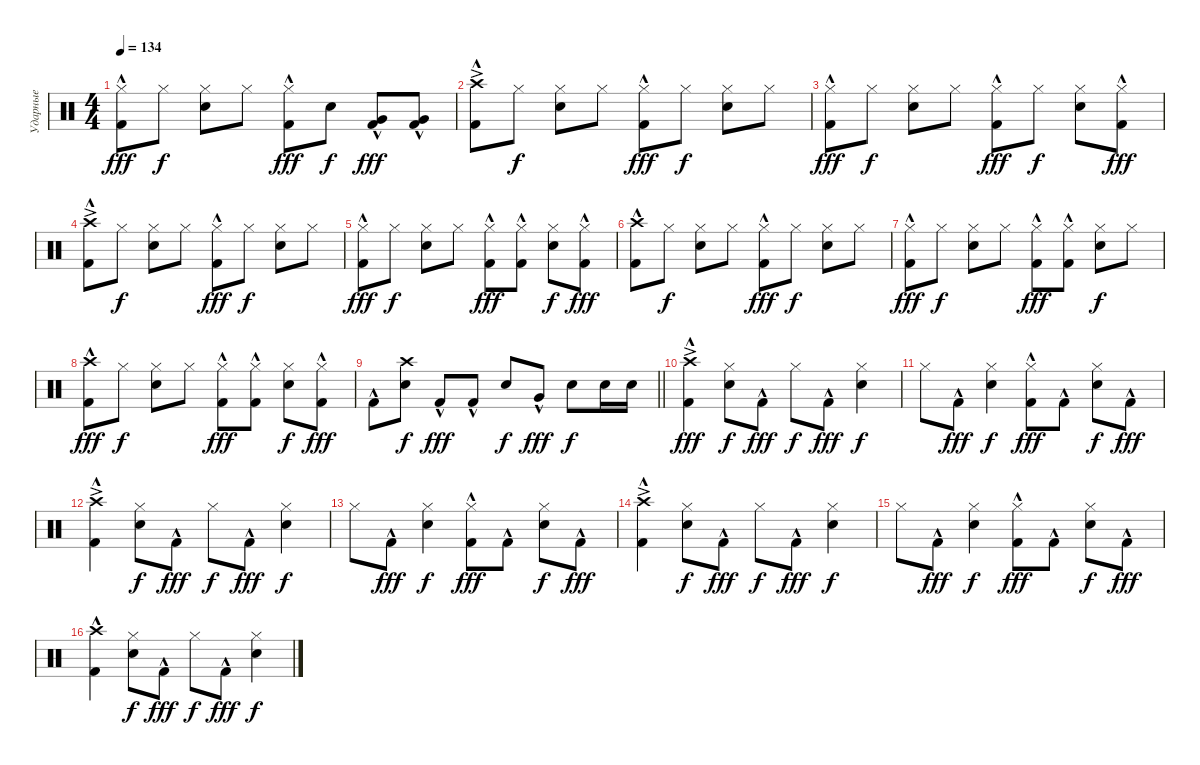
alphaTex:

\track ("Ударные" "Ударные") {instrument percussion}
\staff {score}
\articulation defaults
\ts (4 4)
\tempo 134
\clef neutral
\ks c
("Hi-Hat (closed)" "Kick (hit) 2"{hac}).8{dy fff} "Hi-Hat (closed)".8{dy f} ("Hi-Hat (closed)" "Snare (hit) 2").8 "Hi-Hat (closed)".8 ("Hi-Hat (closed)" "Kick (hit) 2"{hac}).8{dy fff} "Snare (hit) 2".8{dy f} ("Very Low Tom (hit)" "Kick (hit) 2"{hac}).8{dy fff} ("Very Low Tom (hit)" "Kick (hit) 2"{hac}).8 |
("Crash high (hit)"{ac} "Kick (hit) 2"{hac}).8 "Hi-Hat (closed)".8{dy f} ("Hi-Hat (closed)" "Snare (hit) 2").8 "Hi-Hat (closed)".8 ("Hi-Hat (closed)" "Kick (hit) 2"{hac}).8{dy fff} "Hi-Hat (closed)".8{dy f} ("Hi-Hat (closed)" "Snare (hit) 2").8 "Hi-Hat (closed)".8 |
("Hi-Hat (closed)" "Kick (hit) 2"{hac}).8{dy fff} "Hi-Hat (closed)".8{dy f} ("Hi-Hat (closed)" "Snare (hit) 2").8 "Hi-Hat (closed)".8 ("Hi-Hat (closed)" "Kick (hit) 2"{hac}).8{dy fff} "Hi-Hat (closed)".8{dy f} ("Hi-Hat (closed)" "Snare (hit) 2").8 ("Hi-Hat (closed)" "Kick (hit) 2"{hac}).8{dy fff} |
("Crash high (hit)"{ac} "Kick (hit) 2"{hac}).8 "Hi-Hat (closed)".8{dy f} ("Hi-Hat (closed)" "Snare (hit) 2").8 "Hi-Hat (closed)".8 ("Hi-Hat (closed)" "Kick (hit) 2"{hac}).8{dy fff} "Hi-Hat (closed)".8{dy f} ("Hi-Hat (closed)" "Snare (hit) 2").8 "Hi-Hat (closed)".8 |
("Hi-Hat (closed)" "Kick (hit) 2"{hac}).8{dy fff} "Hi-Hat (closed)".8{dy f} ("Hi-Hat (closed)" "Snare (hit) 2").8 "Hi-Hat (closed)".8 ("Hi-Hat (closed)" "Kick (hit) 2"{hac}).8{dy fff} ("Hi-Hat (closed)" "Kick (hit) 2"{hac}).8 ("Hi-Hat (closed)" "Snare (hit) 2").8{dy f} ("Hi-Hat (closed)" "Kick (hit) 2"{hac}).8{dy fff} |
("Crash high (hit)" "Kick (hit) 2"{hac}).8 "Hi-Hat (closed)".8{dy f} ("Hi-Hat (closed)" "Snare (hit) 2").8 "Hi-Hat (closed)".8 ("Hi-Hat (closed)" "Kick (hit) 2"{hac}).8{dy fff} "Hi-Hat (closed)".8{dy f} ("Hi-Hat (closed)" "Snare (hit) 2").8 "Hi-Hat (closed)".8 |
("Hi-Hat (closed)" "Kick (hit) 2"{hac}).8{dy fff} "Hi-Hat (closed)".8{dy f} ("Hi-Hat (closed)" "Snare (hit) 2").8 "Hi-Hat (closed)".8 ("Hi-Hat (closed)" "Kick (hit) 2"{hac}).8{dy fff} ("Hi-Hat (closed)" "Kick (hit) 2"{hac}).8 ("Hi-Hat (closed)" "Snare (hit) 2").8{dy f} "Hi-Hat (closed)".8 |
("Crash high (hit)" "Kick (hit) 2"{hac}).8{dy fff} "Hi-Hat (closed)".8{dy f} ("Hi-Hat (closed)" "Snare (hit) 2").8 "Hi-Hat (closed)".8 ("Hi-Hat (closed)" "Kick (hit) 2"{hac}).8{dy fff} ("Hi-Hat (closed)" "Kick (hit) 2"{hac}).8 ("Hi-Hat (closed)" "Snare (hit) 2").8{dy f} ("Hi-Hat (closed)" "Kick (hit) 2"{hac}).8{dy fff} |
\barLineRight lightlight "Kick (hit) 2"{hac}.8
("Crash high (hit)" "Snare (hit) 2").8{dy f} "Kick (hit) 2"{hac}.8{dy fff} "Kick (hit) 2"{hac}.8 "Snare (hit) 2".8{dy f} "Very Low Tom (hit)"{hac}.8{dy fff} "Snare (hit) 2".8{dy f} "Snare (hit) 2".16 "Snare (hit) 2".16 |
("Crash high (hit)"{ac} "Kick (hit) 2"{hac}).4{dy fff} ("Hi-Hat (closed)" "Snare (hit) 2").8{dy f} "Kick (hit) 2"{hac}.8{dy fff} "Hi-Hat (closed)".8{dy f} "Kick (hit) 2"{hac}.8{dy fff} ("Hi-Hat (closed)" "Snare (hit) 2").4{dy f} |
"Hi-Hat (closed)".8 "Kick (hit) 2"{hac}.8{dy fff} ("Hi-Hat (closed)" "Snare (hit) 2").4{dy f} ("Hi-Hat (closed)" "Kick (hit) 2"{hac}).8{dy fff} "Kick (hit) 2"{hac}.8 ("Hi-Hat (closed)" "Snare (hit) 2").8{dy f} "Kick (hit) 2"{hac}.8{dy fff} |
("Crash high (hit)"{ac} "Kick (hit) 2"{hac}).4 ("Hi-Hat (closed)" "Snare (hit) 2").8{dy f} "Kick (hit) 2"{hac}.8{dy fff} "Hi-Hat (closed)".8{dy f} "Kick (hit) 2"{hac}.8{dy fff} ("Hi-Hat (closed)" "Snare (hit) 2").4{dy f} |
"Hi-Hat (closed)".8 "Kick (hit) 2"{hac}.8{dy fff} ("Hi-Hat (closed)" "Snare (hit) 2").4{dy f} ("Hi-Hat (closed)" "Kick (hit) 2"{hac}).8{dy fff} "Kick (hit) 2"{hac}.8 ("Hi-Hat (closed)" "Snare (hit) 2").8{dy f} "Kick (hit) 2"{hac}.8{dy fff} |
("Crash high (hit)"{ac} "Kick (hit) 2"{hac}).4 ("Hi-Hat (closed)" "Snare (hit) 2").8{dy f} "Kick (hit) 2"{hac}.8{dy fff} "Hi-Hat (closed)".8{dy f} "Kick (hit) 2"{hac}.8{dy fff} ("Hi-Hat (closed)" "Snare (hit) 2").4{dy f} |
"Hi-Hat (closed)".8 "Kick (hit) 2"{hac}.8{dy fff} ("Hi-Hat (closed)" "Snare (hit) 2").4{dy f} ("Hi-Hat (closed)" "Kick (hit) 2"{hac}).8{dy fff} "Kick (hit) 2"{hac}.8 ("Hi-Hat (closed)" "Snare (hit) 2").8{dy f} "Kick (hit) 2"{hac}.8{dy fff} |
("Crash high (hit)" "Kick (hit) 2"{hac}).4 ("Hi-Hat (closed)" "Snare (hit) 2").8{dy f} "Kick (hit) 2"{hac}.8{dy fff} "Hi-Hat (closed)".8{dy f} "Kick (hit) 2"{hac}.8{dy fff} ("Hi-Hat (closed)" "Snare (hit) 2").4{dy f}
